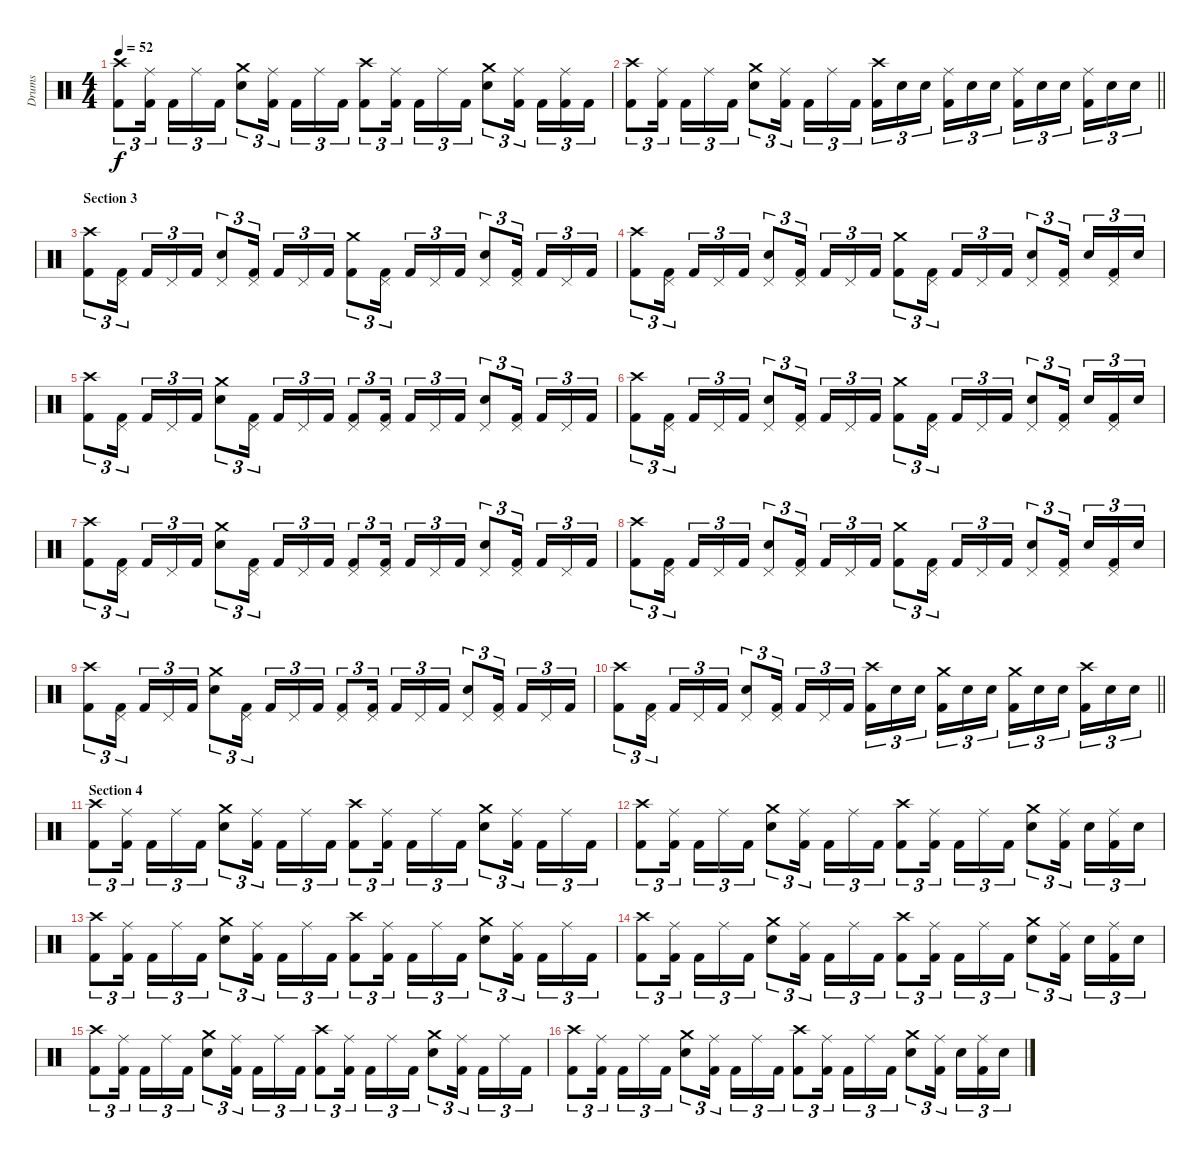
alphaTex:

\track ("Drums" "Drums") {instrument percussion}
\staff {score}
\articulation defaults
\ts (4 4)
\tempo 52
\clef neutral
\ks c
("Crash high (hit)" "Kick (hit) 2").8{tu (3 2) dy f} ("Ride (middle)" "Kick (hit) 2").16{tu (3 2) beam splitsecondary} "Kick (hit) 2".16{tu (3 2)} "Ride (middle)".16{tu (3 2)} "Kick (hit) 2".16{tu (3 2)} ("Crash medium (hit)" "Electric Snare (hit)").8{tu (3 2)} ("Ride (middle)" "Kick (hit) 2").16{tu (3 2) beam splitsecondary} "Kick (hit) 2".16{tu (3 2)} "Ride (middle)".16{tu (3 2)} "Kick (hit) 2".16{tu (3 2)} ("Crash high (hit)" "Kick (hit) 2").8{tu (3 2)} ("Ride (middle)" "Kick (hit) 2").16{tu (3 2) beam splitsecondary} "Kick (hit) 2".16{tu (3 2)} "Ride (middle)".16{tu (3 2)} "Kick (hit) 2".16{tu (3 2)} ("Crash medium (hit)" "Electric Snare (hit)").8{tu (3 2)} ("Ride (middle)" "Kick (hit) 2").16{tu (3 2) beam splitsecondary} "Kick (hit) 2".16{tu (3 2)} ("Ride (middle)" "Kick (hit) 2").16{tu (3 2)} "Kick (hit) 2".16{tu (3 2)} |
\barLineRight lightlight
("Crash high (hit)" "Kick (hit) 2").8{tu (3 2)} ("Ride (middle)" "Kick (hit) 2").16{tu (3 2) beam splitsecondary} "Kick (hit) 2".16{tu (3 2)} "Ride (middle)".16{tu (3 2)} "Kick (hit) 2".16{tu (3 2)} ("Crash medium (hit)" "Electric Snare (hit)").8{tu (3 2)} ("Ride (middle)" "Kick (hit) 2").16{tu (3 2) beam splitsecondary} "Kick (hit) 2".16{tu (3 2)} "Ride (middle)".16{tu (3 2)} "Kick (hit) 2".16{tu (3 2)} ("Crash high (hit)" "Kick (hit) 2").16{tu (3 2)} "Electric Snare (hit)".16{tu (3 2)} "Electric Snare (hit)".16{tu (3 2) beam splitsecondary} ("Ride (middle)" "Kick (hit) 2").16{tu (3 2)} "Electric Snare (hit)".16{tu (3 2)} "Electric Snare (hit)".16{tu (3 2)} ("Ride (middle)" "Kick (hit) 2").16{tu (3 2)} "Electric Snare (hit)".16{tu (3 2)} "Electric Snare (hit)".16{tu (3 2) beam splitsecondary} ("Ride (middle)" "Kick (hit) 2").16{tu (3 2)} "Electric Snare (hit)".16{tu (3 2)} "Electric Snare (hit)".16{tu (3 2)} |
\section ("" "Section 3")
("Crash high (hit)" "Kick (hit) 2").8{tu (3 2)} ("Pedal Hi-Hat (hit)" "Kick (hit) 2").16{tu (3 2) beam splitsecondary} "Kick (hit) 2".16{tu (3 2)} "Pedal Hi-Hat (hit)".16{tu (3 2)} "Kick (hit) 2".16{tu (3 2)} ("Pedal Hi-Hat (hit)" "Electric Snare (hit)").8{tu (3 2)} ("Pedal Hi-Hat (hit)" "Kick (hit) 2").16{tu (3 2) beam splitsecondary} "Kick (hit) 2".16{tu (3 2)} "Pedal Hi-Hat (hit)".16{tu (3 2)} "Kick (hit) 2".16{tu (3 2)} ("Crash medium (hit)" "Kick (hit) 2").8{tu (3 2)} ("Pedal Hi-Hat (hit)" "Kick (hit) 2").16{tu (3 2) beam splitsecondary} "Kick (hit) 2".16{tu (3 2)} "Pedal Hi-Hat (hit)".16{tu (3 2)} "Kick (hit) 2".16{tu (3 2)} ("Pedal Hi-Hat (hit)" "Electric Snare (hit)").8{tu (3 2)} ("Pedal Hi-Hat (hit)" "Kick (hit) 2").16{tu (3 2) beam splitsecondary} "Kick (hit) 2".16{tu (3 2)} "Pedal Hi-Hat (hit)".16{tu (3 2)} "Kick (hit) 2".16{tu (3 2)} |
("Crash high (hit)" "Kick (hit) 2").8{tu (3 2)} ("Pedal Hi-Hat (hit)" "Kick (hit) 2").16{tu (3 2) beam splitsecondary} "Kick (hit) 2".16{tu (3 2)} "Pedal Hi-Hat (hit)".16{tu (3 2)} "Kick (hit) 2".16{tu (3 2)} ("Pedal Hi-Hat (hit)" "Electric Snare (hit)").8{tu (3 2)} ("Pedal Hi-Hat (hit)" "Kick (hit) 2").16{tu (3 2) beam splitsecondary} "Kick (hit) 2".16{tu (3 2)} "Pedal Hi-Hat (hit)".16{tu (3 2)} "Kick (hit) 2".16{tu (3 2)} ("Crash medium (hit)" "Kick (hit) 2").8{tu (3 2)} ("Pedal Hi-Hat (hit)" "Kick (hit) 2").16{tu (3 2) beam splitsecondary} "Kick (hit) 2".16{tu (3 2)} "Pedal Hi-Hat (hit)".16{tu (3 2)} "Kick (hit) 2".16{tu (3 2)} ("Pedal Hi-Hat (hit)" "Electric Snare (hit)").8{tu (3 2)} ("Pedal Hi-Hat (hit)" "Kick (hit) 2").16{tu (3 2) beam splitsecondary} "Electric Snare (hit)".16{tu (3 2)} ("Pedal Hi-Hat (hit)" "Kick (hit) 2").16{tu (3 2)} "Electric Snare (hit)".16{tu (3 2)} |
("Crash high (hit)" "Kick (hit) 2").8{tu (3 2)} ("Pedal Hi-Hat (hit)" "Kick (hit) 2").16{tu (3 2) beam splitsecondary} "Kick (hit) 2".16{tu (3 2)} "Pedal Hi-Hat (hit)".16{tu (3 2)} "Kick (hit) 2".16{tu (3 2)} ("Crash medium (hit)" "Electric Snare (hit)").8{tu (3 2)} ("Pedal Hi-Hat (hit)" "Kick (hit) 2").16{tu (3 2) beam splitsecondary} "Kick (hit) 2".16{tu (3 2)} "Pedal Hi-Hat (hit)".16{tu (3 2)} "Kick (hit) 2".16{tu (3 2)} ("Pedal Hi-Hat (hit)" "Kick (hit) 2").8{tu (3 2)} ("Pedal Hi-Hat (hit)" "Kick (hit) 2").16{tu (3 2) beam splitsecondary} "Kick (hit) 2".16{tu (3 2)} "Pedal Hi-Hat (hit)".16{tu (3 2)} "Kick (hit) 2".16{tu (3 2)} ("Pedal Hi-Hat (hit)" "Electric Snare (hit)").8{tu (3 2)} ("Pedal Hi-Hat (hit)" "Kick (hit) 2").16{tu (3 2) beam splitsecondary} "Kick (hit) 2".16{tu (3 2)} "Pedal Hi-Hat (hit)".16{tu (3 2)} "Kick (hit) 2".16{tu (3 2)} |
("Crash high (hit)" "Kick (hit) 2").8{tu (3 2)} ("Pedal Hi-Hat (hit)" "Kick (hit) 2").16{tu (3 2) beam splitsecondary} "Kick (hit) 2".16{tu (3 2)} "Pedal Hi-Hat (hit)".16{tu (3 2)} "Kick (hit) 2".16{tu (3 2)} ("Pedal Hi-Hat (hit)" "Electric Snare (hit)").8{tu (3 2)} ("Pedal Hi-Hat (hit)" "Kick (hit) 2").16{tu (3 2) beam splitsecondary} "Kick (hit) 2".16{tu (3 2)} "Pedal Hi-Hat (hit)".16{tu (3 2)} "Kick (hit) 2".16{tu (3 2)} ("Crash medium (hit)" "Kick (hit) 2").8{tu (3 2)} ("Pedal Hi-Hat (hit)" "Kick (hit) 2").16{tu (3 2) beam splitsecondary} "Kick (hit) 2".16{tu (3 2)} "Pedal Hi-Hat (hit)".16{tu (3 2)} "Kick (hit) 2".16{tu (3 2)} ("Pedal Hi-Hat (hit)" "Electric Snare (hit)").8{tu (3 2)} ("Pedal Hi-Hat (hit)" "Kick (hit) 2").16{tu (3 2) beam splitsecondary} "Electric Snare (hit)".16{tu (3 2)} ("Pedal Hi-Hat (hit)" "Kick (hit) 2").16{tu (3 2)} "Electric Snare (hit)".16{tu (3 2)} |
("Crash high (hit)" "Kick (hit) 2").8{tu (3 2)} ("Pedal Hi-Hat (hit)" "Kick (hit) 2").16{tu (3 2) beam splitsecondary} "Kick (hit) 2".16{tu (3 2)} "Pedal Hi-Hat (hit)".16{tu (3 2)} "Kick (hit) 2".16{tu (3 2)} ("Crash medium (hit)" "Electric Snare (hit)").8{tu (3 2)} ("Pedal Hi-Hat (hit)" "Kick (hit) 2").16{tu (3 2) beam splitsecondary} "Kick (hit) 2".16{tu (3 2)} "Pedal Hi-Hat (hit)".16{tu (3 2)} "Kick (hit) 2".16{tu (3 2)} ("Pedal Hi-Hat (hit)" "Kick (hit) 2").8{tu (3 2)} ("Pedal Hi-Hat (hit)" "Kick (hit) 2").16{tu (3 2) beam splitsecondary} "Kick (hit) 2".16{tu (3 2)} "Pedal Hi-Hat (hit)".16{tu (3 2)} "Kick (hit) 2".16{tu (3 2)} ("Pedal Hi-Hat (hit)" "Electric Snare (hit)").8{tu (3 2)} ("Pedal Hi-Hat (hit)" "Kick (hit) 2").16{tu (3 2) beam splitsecondary} "Kick (hit) 2".16{tu (3 2)} "Pedal Hi-Hat (hit)".16{tu (3 2)} "Kick (hit) 2".16{tu (3 2)} |
("Crash high (hit)" "Kick (hit) 2").8{tu (3 2)} ("Pedal Hi-Hat (hit)" "Kick (hit) 2").16{tu (3 2) beam splitsecondary} "Kick (hit) 2".16{tu (3 2)} "Pedal Hi-Hat (hit)".16{tu (3 2)} "Kick (hit) 2".16{tu (3 2)} ("Pedal Hi-Hat (hit)" "Electric Snare (hit)").8{tu (3 2)} ("Pedal Hi-Hat (hit)" "Kick (hit) 2").16{tu (3 2) beam splitsecondary} "Kick (hit) 2".16{tu (3 2)} "Pedal Hi-Hat (hit)".16{tu (3 2)} "Kick (hit) 2".16{tu (3 2)} ("Crash medium (hit)" "Kick (hit) 2").8{tu (3 2)} ("Pedal Hi-Hat (hit)" "Kick (hit) 2").16{tu (3 2) beam splitsecondary} "Kick (hit) 2".16{tu (3 2)} "Pedal Hi-Hat (hit)".16{tu (3 2)} "Kick (hit) 2".16{tu (3 2)} ("Pedal Hi-Hat (hit)" "Electric Snare (hit)").8{tu (3 2)} ("Pedal Hi-Hat (hit)" "Kick (hit) 2").16{tu (3 2) beam splitsecondary} "Electric Snare (hit)".16{tu (3 2)} ("Pedal Hi-Hat (hit)" "Kick (hit) 2").16{tu (3 2)} "Electric Snare (hit)".16{tu (3 2)} |
("Crash high (hit)" "Kick (hit) 2").8{tu (3 2)} ("Pedal Hi-Hat (hit)" "Kick (hit) 2").16{tu (3 2) beam splitsecondary} "Kick (hit) 2".16{tu (3 2)} "Pedal Hi-Hat (hit)".16{tu (3 2)} "Kick (hit) 2".16{tu (3 2)} ("Crash medium (hit)" "Electric Snare (hit)").8{tu (3 2)} ("Pedal Hi-Hat (hit)" "Kick (hit) 2").16{tu (3 2) beam splitsecondary} "Kick (hit) 2".16{tu (3 2)} "Pedal Hi-Hat (hit)".16{tu (3 2)} "Kick (hit) 2".16{tu (3 2)} ("Pedal Hi-Hat (hit)" "Kick (hit) 2").8{tu (3 2)} ("Pedal Hi-Hat (hit)" "Kick (hit) 2").16{tu (3 2) beam splitsecondary} "Kick (hit) 2".16{tu (3 2)} "Pedal Hi-Hat (hit)".16{tu (3 2)} "Kick (hit) 2".16{tu (3 2)} ("Pedal Hi-Hat (hit)" "Electric Snare (hit)").8{tu (3 2)} ("Pedal Hi-Hat (hit)" "Kick (hit) 2").16{tu (3 2) beam splitsecondary} "Kick (hit) 2".16{tu (3 2)} "Pedal Hi-Hat (hit)".16{tu (3 2)} "Kick (hit) 2".16{tu (3 2)} |
\barLineRight lightlight
("Crash high (hit)" "Kick (hit) 2").8{tu (3 2)} ("Pedal Hi-Hat (hit)" "Kick (hit) 2").16{tu (3 2) beam splitsecondary} "Kick (hit) 2".16{tu (3 2)} "Pedal Hi-Hat (hit)".16{tu (3 2)} "Kick (hit) 2".16{tu (3 2)} ("Pedal Hi-Hat (hit)" "Electric Snare (hit)").8{tu (3 2)} ("Pedal Hi-Hat (hit)" "Kick (hit) 2").16{tu (3 2) beam splitsecondary} "Kick (hit) 2".16{tu (3 2)} "Pedal Hi-Hat (hit)".16{tu (3 2)} "Kick (hit) 2".16{tu (3 2)} ("Crash high (hit)" "Kick (hit) 2").16{tu (3 2)} "Electric Snare (hit)".16{tu (3 2)} "Electric Snare (hit)".16{tu (3 2) beam splitsecondary} ("Crash medium (hit)" "Kick (hit) 2").16{tu (3 2)} "Electric Snare (hit)".16{tu (3 2)} "Electric Snare (hit)".16{tu (3 2)} ("Crash medium (hit)" "Kick (hit) 2").16{tu (3 2)} "Electric Snare (hit)".16{tu (3 2)} "Electric Snare (hit)".16{tu (3 2) beam splitsecondary} ("Crash high (hit)" "Kick (hit) 2").16{tu (3 2)} "Electric Snare (hit)".16{tu (3 2)} "Electric Snare (hit)".16{tu (3 2)} |
\section ("" "Section 4")
("Crash high (hit)" "Kick (hit) 2").8{tu (3 2)} ("Ride (middle)" "Kick (hit) 2").16{tu (3 2) beam splitsecondary} "Kick (hit) 2".16{tu (3 2)} "Ride (middle)".16{tu (3 2)} "Kick (hit) 2".16{tu (3 2)} ("Crash medium (hit)" "Electric Snare (hit)").8{tu (3 2)} ("Ride (middle)" "Kick (hit) 2").16{tu (3 2) beam splitsecondary} "Kick (hit) 2".16{tu (3 2)} "Ride (middle)".16{tu (3 2)} "Kick (hit) 2".16{tu (3 2)} ("Crash high (hit)" "Kick (hit) 2").8{tu (3 2)} ("Ride (middle)" "Kick (hit) 2").16{tu (3 2) beam splitsecondary} "Kick (hit) 2".16{tu (3 2)} "Ride (middle)".16{tu (3 2)} "Kick (hit) 2".16{tu (3 2)} ("Crash medium (hit)" "Electric Snare (hit)").8{tu (3 2)} ("Ride (middle)" "Kick (hit) 2").16{tu (3 2) beam splitsecondary} "Kick (hit) 2".16{tu (3 2)} "Ride (middle)".16{tu (3 2)} "Kick (hit) 2".16{tu (3 2)} |
("Crash high (hit)" "Kick (hit) 2").8{tu (3 2)} ("Ride (middle)" "Kick (hit) 2").16{tu (3 2) beam splitsecondary} "Kick (hit) 2".16{tu (3 2)} "Ride (middle)".16{tu (3 2)} "Kick (hit) 2".16{tu (3 2)} ("Crash medium (hit)" "Electric Snare (hit)").8{tu (3 2)} ("Ride (middle)" "Kick (hit) 2").16{tu (3 2) beam splitsecondary} "Kick (hit) 2".16{tu (3 2)} "Ride (middle)".16{tu (3 2)} "Kick (hit) 2".16{tu (3 2)} ("Crash high (hit)" "Kick (hit) 2").8{tu (3 2)} ("Ride (middle)" "Kick (hit) 2").16{tu (3 2) beam splitsecondary} "Kick (hit) 2".16{tu (3 2)} "Ride (middle)".16{tu (3 2)} "Kick (hit) 2".16{tu (3 2)} ("Crash medium (hit)" "Electric Snare (hit)").8{tu (3 2)} ("Ride (middle)" "Kick (hit) 2").16{tu (3 2) beam splitsecondary} "Electric Snare (hit)".16{tu (3 2)} ("Ride (middle)" "Kick (hit) 2").16{tu (3 2)} "Electric Snare (hit)".16{tu (3 2)} |
("Crash high (hit)" "Kick (hit) 2").8{tu (3 2)} ("Ride (middle)" "Kick (hit) 2").16{tu (3 2) beam splitsecondary} "Kick (hit) 2".16{tu (3 2)} "Ride (middle)".16{tu (3 2)} "Kick (hit) 2".16{tu (3 2)} ("Crash medium (hit)" "Electric Snare (hit)").8{tu (3 2)} ("Ride (middle)" "Kick (hit) 2").16{tu (3 2) beam splitsecondary} "Kick (hit) 2".16{tu (3 2)} "Ride (middle)".16{tu (3 2)} "Kick (hit) 2".16{tu (3 2)} ("Crash high (hit)" "Kick (hit) 2").8{tu (3 2)} ("Ride (middle)" "Kick (hit) 2").16{tu (3 2) beam splitsecondary} "Kick (hit) 2".16{tu (3 2)} "Ride (middle)".16{tu (3 2)} "Kick (hit) 2".16{tu (3 2)} ("Crash medium (hit)" "Electric Snare (hit)").8{tu (3 2)} ("Ride (middle)" "Kick (hit) 2").16{tu (3 2) beam splitsecondary} "Kick (hit) 2".16{tu (3 2)} "Ride (middle)".16{tu (3 2)} "Kick (hit) 2".16{tu (3 2)} |
("Crash high (hit)" "Kick (hit) 2").8{tu (3 2)} ("Ride (middle)" "Kick (hit) 2").16{tu (3 2) beam splitsecondary} "Kick (hit) 2".16{tu (3 2)} "Ride (middle)".16{tu (3 2)} "Kick (hit) 2".16{tu (3 2)} ("Crash medium (hit)" "Electric Snare (hit)").8{tu (3 2)} ("Ride (middle)" "Kick (hit) 2").16{tu (3 2) beam splitsecondary} "Kick (hit) 2".16{tu (3 2)} "Ride (middle)".16{tu (3 2)} "Kick (hit) 2".16{tu (3 2)} ("Crash high (hit)" "Kick (hit) 2").8{tu (3 2)} ("Ride (middle)" "Kick (hit) 2").16{tu (3 2) beam splitsecondary} "Kick (hit) 2".16{tu (3 2)} "Ride (middle)".16{tu (3 2)} "Kick (hit) 2".16{tu (3 2)} ("Crash medium (hit)" "Electric Snare (hit)").8{tu (3 2)} ("Ride (middle)" "Kick (hit) 2").16{tu (3 2) beam splitsecondary} "Electric Snare (hit)".16{tu (3 2)} ("Ride (middle)" "Kick (hit) 2").16{tu (3 2)} "Electric Snare (hit)".16{tu (3 2)} |
("Crash high (hit)" "Kick (hit) 2").8{tu (3 2)} ("Ride (middle)" "Kick (hit) 2").16{tu (3 2) beam splitsecondary} "Kick (hit) 2".16{tu (3 2)} "Ride (middle)".16{tu (3 2)} "Kick (hit) 2".16{tu (3 2)} ("Crash medium (hit)" "Electric Snare (hit)").8{tu (3 2)} ("Ride (middle)" "Kick (hit) 2").16{tu (3 2) beam splitsecondary} "Kick (hit) 2".16{tu (3 2)} "Ride (middle)".16{tu (3 2)} "Kick (hit) 2".16{tu (3 2)} ("Crash high (hit)" "Kick (hit) 2").8{tu (3 2)} ("Ride (middle)" "Kick (hit) 2").16{tu (3 2) beam splitsecondary} "Kick (hit) 2".16{tu (3 2)} "Ride (middle)".16{tu (3 2)} "Kick (hit) 2".16{tu (3 2)} ("Crash medium (hit)" "Electric Snare (hit)").8{tu (3 2)} ("Ride (middle)" "Kick (hit) 2").16{tu (3 2) beam splitsecondary} "Kick (hit) 2".16{tu (3 2)} "Ride (middle)".16{tu (3 2)} "Kick (hit) 2".16{tu (3 2)} |
("Crash high (hit)" "Kick (hit) 2").8{tu (3 2)} ("Ride (middle)" "Kick (hit) 2").16{tu (3 2) beam splitsecondary} "Kick (hit) 2".16{tu (3 2)} "Ride (middle)".16{tu (3 2)} "Kick (hit) 2".16{tu (3 2)} ("Crash medium (hit)" "Electric Snare (hit)").8{tu (3 2)} ("Ride (middle)" "Kick (hit) 2").16{tu (3 2) beam splitsecondary} "Kick (hit) 2".16{tu (3 2)} "Ride (middle)".16{tu (3 2)} "Kick (hit) 2".16{tu (3 2)} ("Crash high (hit)" "Kick (hit) 2").8{tu (3 2)} ("Ride (middle)" "Kick (hit) 2").16{tu (3 2) beam splitsecondary} "Kick (hit) 2".16{tu (3 2)} "Ride (middle)".16{tu (3 2)} "Kick (hit) 2".16{tu (3 2)} ("Crash medium (hit)" "Electric Snare (hit)").8{tu (3 2)} ("Ride (middle)" "Kick (hit) 2").16{tu (3 2) beam splitsecondary} "Electric Snare (hit)".16{tu (3 2)} ("Ride (middle)" "Kick (hit) 2").16{tu (3 2)} "Electric Snare (hit)".16{tu (3 2)}
